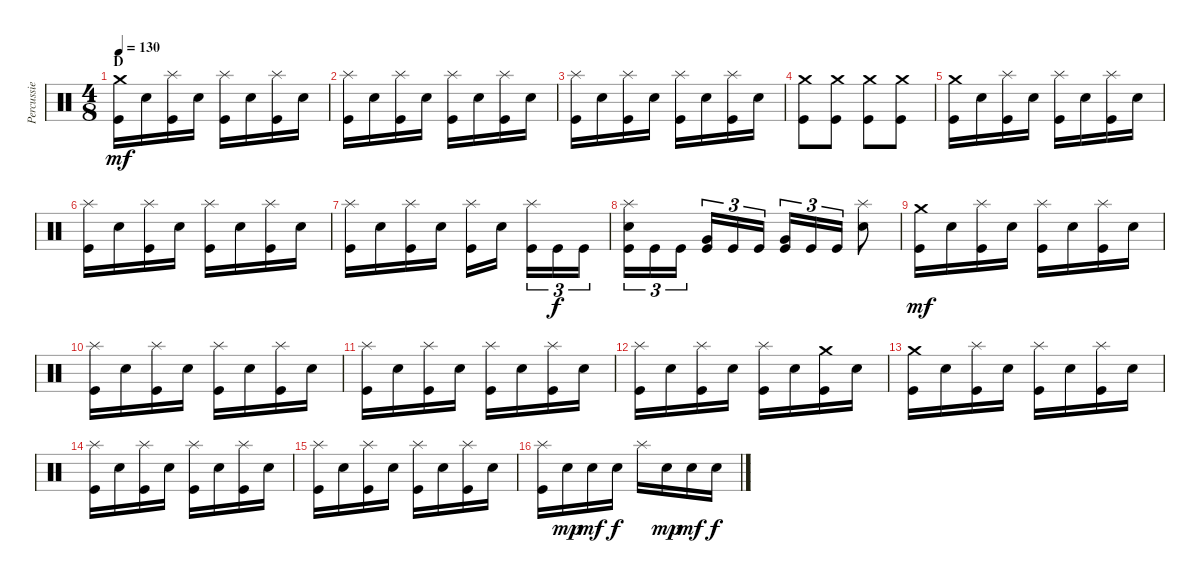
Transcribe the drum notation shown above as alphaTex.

\track ("Percussie" "Percussie") {instrument percussion}
\staff {score}
\articulation defaults
\ts (4 8)
\section ("" "D")
\tempo 130
\clef neutral
\ks c
("Crash medium (hit)" "Kick (hit)").16{dy mf} "Electric Snare (hit)".16 ("Splash (hit)" "Kick (hit)").16 "Electric Snare (hit)".16 ("Splash (hit)" "Kick (hit)").16 "Electric Snare (hit)".16 ("Splash (hit)" "Kick (hit)").16 "Electric Snare (hit)".16 |
("Splash (hit)" "Kick (hit)").16 "Electric Snare (hit)".16 ("Splash (hit)" "Kick (hit)").16 "Electric Snare (hit)".16 ("Splash (hit)" "Kick (hit)").16 "Electric Snare (hit)".16 ("Splash (hit)" "Kick (hit)").16 "Electric Snare (hit)".16 |
("Splash (hit)" "Kick (hit)").16 "Electric Snare (hit)".16 ("Splash (hit)" "Kick (hit)").16 "Electric Snare (hit)".16 ("Splash (hit)" "Kick (hit)").16 "Electric Snare (hit)".16 ("Splash (hit)" "Kick (hit)").16 "Electric Snare (hit)".16 |
("Crash medium (hit)" "Kick (hit)").8 ("Crash medium (hit)" "Kick (hit)").8 ("Crash medium (hit)" "Kick (hit)").8 ("Crash medium (hit)" "Kick (hit)").8 |
("Crash medium (hit)" "Kick (hit)").16 "Electric Snare (hit)".16 ("Splash (hit)" "Kick (hit)").16 "Electric Snare (hit)".16 ("Splash (hit)" "Kick (hit)").16 "Electric Snare (hit)".16 ("Splash (hit)" "Kick (hit)").16 "Electric Snare (hit)".16 |
("Splash (hit)" "Kick (hit)").16 "Electric Snare (hit)".16 ("Splash (hit)" "Kick (hit)").16 "Electric Snare (hit)".16 ("Splash (hit)" "Kick (hit)").16 "Electric Snare (hit)".16 ("Splash (hit)" "Kick (hit)").16 "Electric Snare (hit)".16 |
("Splash (hit)" "Kick (hit)").16 "Electric Snare (hit)".16 ("Splash (hit)" "Kick (hit)").16 "Electric Snare (hit)".16 ("Splash (hit)" "Kick (hit)").16 "Electric Snare (hit)".16 ("Splash (hit)" "Kick (hit)").16{tu (3 2)} "Kick (hit)".16{tu (3 2) dy f} "Kick (hit)".16{tu (3 2)} |
("Splash (hit)" "Electric Snare (hit)" "Kick (hit)").16{tu (3 2)} "Kick (hit)".16{tu (3 2)} "Kick (hit)".16{tu (3 2)} ("Very Low Tom (hit)" "Kick (hit)").16{tu (3 2)} "Kick (hit)".16{tu (3 2)} "Kick (hit)".16{tu (3 2)} ("Very Low Tom (hit)" "Kick (hit)").16{tu (3 2)} "Kick (hit)".16{tu (3 2)} "Kick (hit)".16{tu (3 2)} ("Splash (hit)" "Electric Snare (hit)").8 |
("Crash medium (hit)" "Kick (hit)").16{dy mf} "Electric Snare (hit)".16 ("Splash (hit)" "Kick (hit)").16 "Electric Snare (hit)".16 ("Splash (hit)" "Kick (hit)").16 "Electric Snare (hit)".16 ("Splash (hit)" "Kick (hit)").16 "Electric Snare (hit)".16 |
("Splash (hit)" "Kick (hit)").16 "Electric Snare (hit)".16 ("Splash (hit)" "Kick (hit)").16 "Electric Snare (hit)".16 ("Splash (hit)" "Kick (hit)").16 "Electric Snare (hit)".16 ("Splash (hit)" "Kick (hit)").16 "Electric Snare (hit)".16 |
("Splash (hit)" "Kick (hit)").16 "Electric Snare (hit)".16 ("Splash (hit)" "Kick (hit)").16 "Electric Snare (hit)".16 ("Splash (hit)" "Kick (hit)").16 "Electric Snare (hit)".16 ("Splash (hit)" "Kick (hit)").16 "Electric Snare (hit)".16 |
("Splash (hit)" "Kick (hit)").16 "Electric Snare (hit)".16 ("Splash (hit)" "Kick (hit)").16 "Electric Snare (hit)".16 ("Splash (hit)" "Kick (hit)").16 "Electric Snare (hit)".16 ("Crash medium (hit)" "Kick (hit)").16 "Electric Snare (hit)".16 |
("Crash medium (hit)" "Kick (hit)").16 "Electric Snare (hit)".16 ("Splash (hit)" "Kick (hit)").16 "Electric Snare (hit)".16 ("Splash (hit)" "Kick (hit)").16 "Electric Snare (hit)".16 ("Splash (hit)" "Kick (hit)").16 "Electric Snare (hit)".16 |
("Splash (hit)" "Kick (hit)").16 "Electric Snare (hit)".16 ("Splash (hit)" "Kick (hit)").16 "Electric Snare (hit)".16 ("Splash (hit)" "Kick (hit)").16 "Electric Snare (hit)".16 ("Splash (hit)" "Kick (hit)").16 "Electric Snare (hit)".16 |
("Splash (hit)" "Kick (hit)").16 "Electric Snare (hit)".16 ("Splash (hit)" "Kick (hit)").16 "Electric Snare (hit)".16 ("Splash (hit)" "Kick (hit)").16 "Electric Snare (hit)".16 ("Splash (hit)" "Kick (hit)").16 "Electric Snare (hit)".16 |
("Splash (hit)" "Kick (hit)").16 "Electric Snare (hit)".16{dy mp} "Electric Snare (hit)".16{dy mf} "Electric Snare (hit)".16{dy f} "Splash (hit)".16 "Electric Snare (hit)".16{dy mp} "Electric Snare (hit)".16{dy mf} "Electric Snare (hit)".16{dy f}
